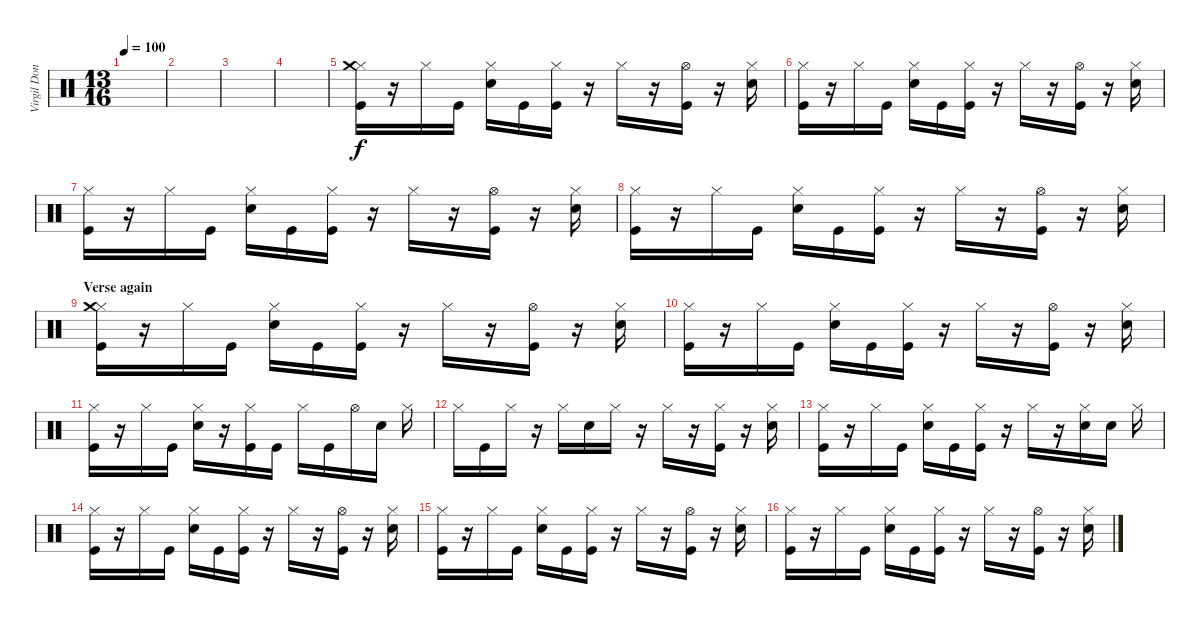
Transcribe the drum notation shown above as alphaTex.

\track ("Virgil Donati" "Virgil Don") {instrument percussion}
\staff {score}
\articulation defaults
\ts (13 16)
\tempo 100
\clef neutral
\ks c
|
|
|
|
("Hi-Hat (closed)" "Crash medium (hit)" "Kick (hit)").16 r.16 "Hi-Hat (closed)".16 "Kick (hit)".16 ("Hi-Hat (closed)" "Electric Snare (hit)").16 "Kick (hit)".16 ("Hi-Hat (closed)" "Kick (hit)").16 r.16 "Hi-Hat (closed)".16 r.16 ("Hi-Hat (open)" "Kick (hit)").16 r.16 ("Hi-Hat (closed)" "Electric Snare (hit)").16 |
("Hi-Hat (closed)" "Kick (hit)").16 r.16 "Hi-Hat (closed)".16 "Kick (hit)".16 ("Hi-Hat (closed)" "Electric Snare (hit)").16 "Kick (hit)".16 ("Hi-Hat (closed)" "Kick (hit)").16 r.16 "Hi-Hat (closed)".16 r.16 ("Hi-Hat (open)" "Kick (hit)").16 r.16 ("Hi-Hat (closed)" "Electric Snare (hit)").16 |
("Hi-Hat (closed)" "Kick (hit)").16 r.16 "Hi-Hat (closed)".16 "Kick (hit)".16 ("Hi-Hat (closed)" "Electric Snare (hit)").16 "Kick (hit)".16 ("Hi-Hat (closed)" "Kick (hit)").16 r.16 "Hi-Hat (closed)".16 r.16 ("Hi-Hat (open)" "Kick (hit)").16 r.16 ("Hi-Hat (closed)" "Electric Snare (hit)").16 |
("Hi-Hat (closed)" "Kick (hit)").16 r.16 "Hi-Hat (closed)".16 "Kick (hit)".16 ("Hi-Hat (closed)" "Electric Snare (hit)").16 "Kick (hit)".16 ("Hi-Hat (closed)" "Kick (hit)").16 r.16 "Hi-Hat (closed)".16 r.16 ("Hi-Hat (open)" "Kick (hit)").16 r.16 ("Hi-Hat (closed)" "Electric Snare (hit)").16 |
\section ("" "Verse again")
("Hi-Hat (closed)" "Crash medium (hit)" "Kick (hit)").16 r.16 "Hi-Hat (closed)".16 "Kick (hit)".16 ("Hi-Hat (closed)" "Electric Snare (hit)").16 "Kick (hit)".16 ("Hi-Hat (closed)" "Kick (hit)").16 r.16 "Hi-Hat (closed)".16 r.16 ("Hi-Hat (open)" "Kick (hit)").16 r.16 ("Hi-Hat (closed)" "Electric Snare (hit)").16 |
("Hi-Hat (closed)" "Kick (hit)").16 r.16 "Hi-Hat (closed)".16 "Kick (hit)".16 ("Hi-Hat (closed)" "Electric Snare (hit)").16 "Kick (hit)".16 ("Hi-Hat (closed)" "Kick (hit)").16 r.16 "Hi-Hat (closed)".16 r.16 ("Hi-Hat (open)" "Kick (hit)").16 r.16 ("Hi-Hat (closed)" "Electric Snare (hit)").16 |
("Hi-Hat (closed)" "Kick (hit)").16 r.16 "Hi-Hat (closed)".16 "Kick (hit)".16 ("Hi-Hat (closed)" "Electric Snare (hit)").16 r.16 ("Hi-Hat (closed)" "Kick (hit)").16 "Kick (hit)".16 "Hi-Hat (closed)".16 "Kick (hit)".16 "Hi-Hat (open)".16 "Electric Snare (hit)".16 "Hi-Hat (closed)".16 |
"Hi-Hat (closed)".16 "Kick (hit)".16 "Hi-Hat (closed)".16 r.16 "Hi-Hat (closed)".16 "Electric Snare (hit)".16 "Hi-Hat (closed)".16 r.16 "Hi-Hat (closed)".16 r.16 ("Hi-Hat (closed)" "Kick (hit)").16 r.16 ("Hi-Hat (closed)" "Electric Snare (hit)").16 |
("Hi-Hat (closed)" "Kick (hit)").16 r.16 "Hi-Hat (closed)".16 "Kick (hit)".16 ("Hi-Hat (closed)" "Electric Snare (hit)").16 "Kick (hit)".16 ("Hi-Hat (closed)" "Kick (hit)").16 r.16 "Hi-Hat (closed)".16 r.16 ("Hi-Hat (closed)" "Electric Snare (hit)").16 "Electric Snare (hit)".16 "Hi-Hat (closed)".16 |
("Hi-Hat (closed)" "Kick (hit)").16 r.16 "Hi-Hat (closed)".16 "Kick (hit)".16 ("Hi-Hat (closed)" "Electric Snare (hit)").16 "Kick (hit)".16 ("Hi-Hat (closed)" "Kick (hit)").16 r.16 "Hi-Hat (closed)".16 r.16 ("Hi-Hat (open)" "Kick (hit)").16 r.16 ("Hi-Hat (closed)" "Electric Snare (hit)").16 |
("Hi-Hat (closed)" "Kick (hit)").16 r.16 "Hi-Hat (closed)".16 "Kick (hit)".16 ("Hi-Hat (closed)" "Electric Snare (hit)").16 "Kick (hit)".16 ("Hi-Hat (closed)" "Kick (hit)").16 r.16 "Hi-Hat (closed)".16 r.16 ("Hi-Hat (open)" "Kick (hit)").16 r.16 ("Hi-Hat (closed)" "Electric Snare (hit)").16 |
("Hi-Hat (closed)" "Kick (hit)").16 r.16 "Hi-Hat (closed)".16 "Kick (hit)".16 ("Hi-Hat (closed)" "Electric Snare (hit)").16 "Kick (hit)".16 ("Hi-Hat (closed)" "Kick (hit)").16 r.16 "Hi-Hat (closed)".16 r.16 ("Hi-Hat (open)" "Kick (hit)").16 r.16 ("Hi-Hat (closed)" "Electric Snare (hit)").16
